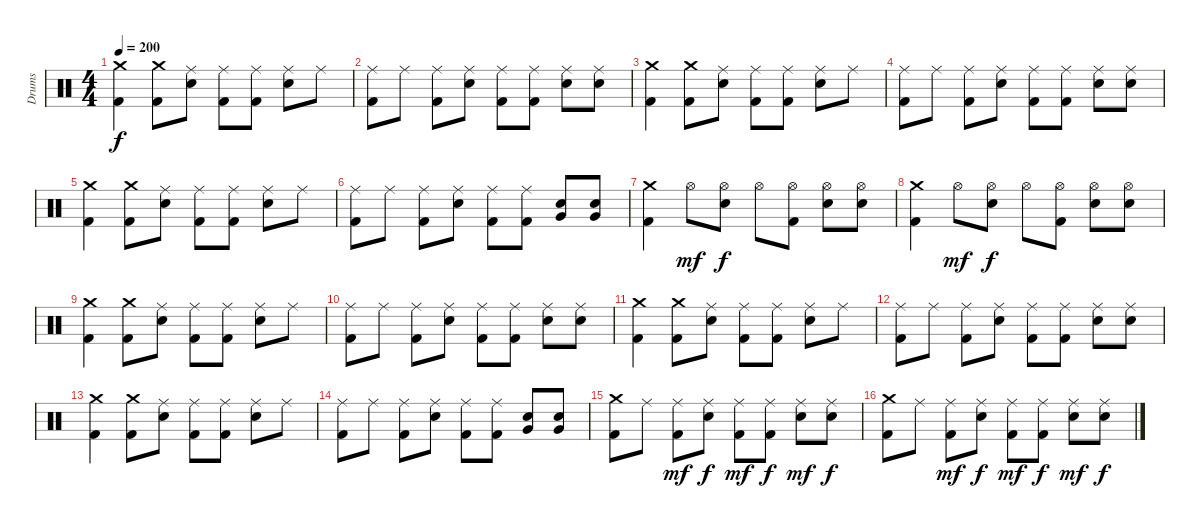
\track ("Drums" "Drums") {instrument percussion}
\staff {score}
\articulation defaults
\ts (4 4)
\tempo 200
\clef neutral
\ks c
("Crash medium (hit)" "Kick (hit) 2").4{dy f} ("Crash medium (hit)" "Kick (hit) 2").8 ("Ride (middle)" "Electric Snare (hit)").8 ("Ride (middle)" "Kick (hit) 2").8 ("Ride (middle)" "Kick (hit) 2").8 ("Ride (middle)" "Electric Snare (hit)").8 "Ride (middle)".8 |
("Ride (middle)" "Kick (hit) 2").8 "Ride (middle)".8 ("Ride (middle)" "Kick (hit) 2").8 ("Ride (middle)" "Electric Snare (hit)").8 ("Ride (middle)" "Kick (hit) 2").8 ("Ride (middle)" "Kick (hit) 2").8 ("Ride (middle)" "Electric Snare (hit)").8 ("Ride (middle)" "Electric Snare (hit)").8 |
("Crash medium (hit)" "Kick (hit) 2").4 ("Crash medium (hit)" "Kick (hit) 2").8 ("Ride (middle)" "Electric Snare (hit)").8 ("Ride (middle)" "Kick (hit) 2").8 ("Ride (middle)" "Kick (hit) 2").8 ("Ride (middle)" "Electric Snare (hit)").8 "Ride (middle)".8 |
("Ride (middle)" "Kick (hit) 2").8 "Ride (middle)".8 ("Ride (middle)" "Kick (hit) 2").8 ("Ride (middle)" "Electric Snare (hit)").8 ("Ride (middle)" "Kick (hit) 2").8 ("Ride (middle)" "Kick (hit) 2").8 ("Ride (middle)" "Electric Snare (hit)").8 ("Ride (middle)" "Electric Snare (hit)").8 |
("Crash medium (hit)" "Kick (hit) 2").4 ("Crash medium (hit)" "Kick (hit) 2").8 ("Ride (middle)" "Electric Snare (hit)").8 ("Ride (middle)" "Kick (hit) 2").8 ("Ride (middle)" "Kick (hit) 2").8 ("Ride (middle)" "Electric Snare (hit)").8 "Ride (middle)".8 |
("Ride (middle)" "Kick (hit) 2").8 "Ride (middle)".8 ("Ride (middle)" "Kick (hit) 2").8 ("Ride (middle)" "Electric Snare (hit)").8 ("Ride (middle)" "Kick (hit) 2").8 ("Ride (middle)" "Kick (hit) 2").8 ("Very Low Tom (hit)" "Electric Snare (hit)").8 ("Very Low Tom (hit)" "Electric Snare (hit)").8 |
("Crash medium (hit)" "Kick (hit) 2").4 "Hi-Hat (open)".8{dy mf} ("Hi-Hat (open)" "Electric Snare (hit)").8{dy f} "Hi-Hat (open)".8 ("Hi-Hat (open)" "Kick (hit) 2").8 ("Hi-Hat (open)" "Electric Snare (hit)").8 ("Hi-Hat (open)" "Electric Snare (hit)").8 |
("Crash medium (hit)" "Kick (hit) 2").4 "Hi-Hat (open)".8{dy mf} ("Hi-Hat (open)" "Electric Snare (hit)").8{dy f} "Hi-Hat (open)".8 ("Hi-Hat (open)" "Kick (hit) 2").8 ("Hi-Hat (open)" "Electric Snare (hit)").8 ("Hi-Hat (open)" "Electric Snare (hit)").8 |
("Crash medium (hit)" "Kick (hit) 2").4 ("Crash medium (hit)" "Kick (hit) 2").8 ("Ride (middle)" "Electric Snare (hit)").8 ("Ride (middle)" "Kick (hit) 2").8 ("Ride (middle)" "Kick (hit) 2").8 ("Ride (middle)" "Electric Snare (hit)").8 "Ride (middle)".8 |
("Ride (middle)" "Kick (hit) 2").8 "Ride (middle)".8 ("Ride (middle)" "Kick (hit) 2").8 ("Ride (middle)" "Electric Snare (hit)").8 ("Ride (middle)" "Kick (hit) 2").8 ("Ride (middle)" "Kick (hit) 2").8 ("Ride (middle)" "Electric Snare (hit)").8 ("Ride (middle)" "Electric Snare (hit)").8 |
("Crash medium (hit)" "Kick (hit) 2").4 ("Crash medium (hit)" "Kick (hit) 2").8 ("Ride (middle)" "Electric Snare (hit)").8 ("Ride (middle)" "Kick (hit) 2").8 ("Ride (middle)" "Kick (hit) 2").8 ("Ride (middle)" "Electric Snare (hit)").8 "Ride (middle)".8 |
("Ride (middle)" "Kick (hit) 2").8 "Ride (middle)".8 ("Ride (middle)" "Kick (hit) 2").8 ("Ride (middle)" "Electric Snare (hit)").8 ("Ride (middle)" "Kick (hit) 2").8 ("Ride (middle)" "Kick (hit) 2").8 ("Ride (middle)" "Electric Snare (hit)").8 ("Ride (middle)" "Electric Snare (hit)").8 |
("Crash medium (hit)" "Kick (hit) 2").4 ("Crash medium (hit)" "Kick (hit) 2").8 ("Ride (middle)" "Electric Snare (hit)").8 ("Ride (middle)" "Kick (hit) 2").8 ("Ride (middle)" "Kick (hit) 2").8 ("Ride (middle)" "Electric Snare (hit)").8 "Ride (middle)".8 |
("Ride (middle)" "Kick (hit) 2").8 "Ride (middle)".8 ("Ride (middle)" "Kick (hit) 2").8 ("Ride (middle)" "Electric Snare (hit)").8 ("Ride (middle)" "Kick (hit) 2").8 ("Ride (middle)" "Kick (hit) 2").8 ("Very Low Tom (hit)" "Electric Snare (hit)").8 ("Very Low Tom (hit)" "Electric Snare (hit)").8 |
("Crash medium (hit)" "Kick (hit) 2").8 "Ride (middle)".8 ("Ride (middle)" "Kick (hit) 2").8{dy mf} ("Ride (middle)" "Electric Snare (hit)").8{dy f} ("Ride (middle)" "Kick (hit) 2").8{dy mf} ("Ride (middle)" "Kick (hit) 2").8{dy f} ("Ride (middle)" "Electric Snare (hit)").8{dy mf} ("Ride (middle)" "Electric Snare (hit)").8{dy f} |
("Crash medium (hit)" "Kick (hit) 2").8 "Ride (middle)".8 ("Ride (middle)" "Kick (hit) 2").8{dy mf} ("Ride (middle)" "Electric Snare (hit)").8{dy f} ("Ride (middle)" "Kick (hit) 2").8{dy mf} ("Ride (middle)" "Kick (hit) 2").8{dy f} ("Ride (middle)" "Electric Snare (hit)").8{dy mf} ("Ride (middle)" "Electric Snare (hit)").8{dy f}
